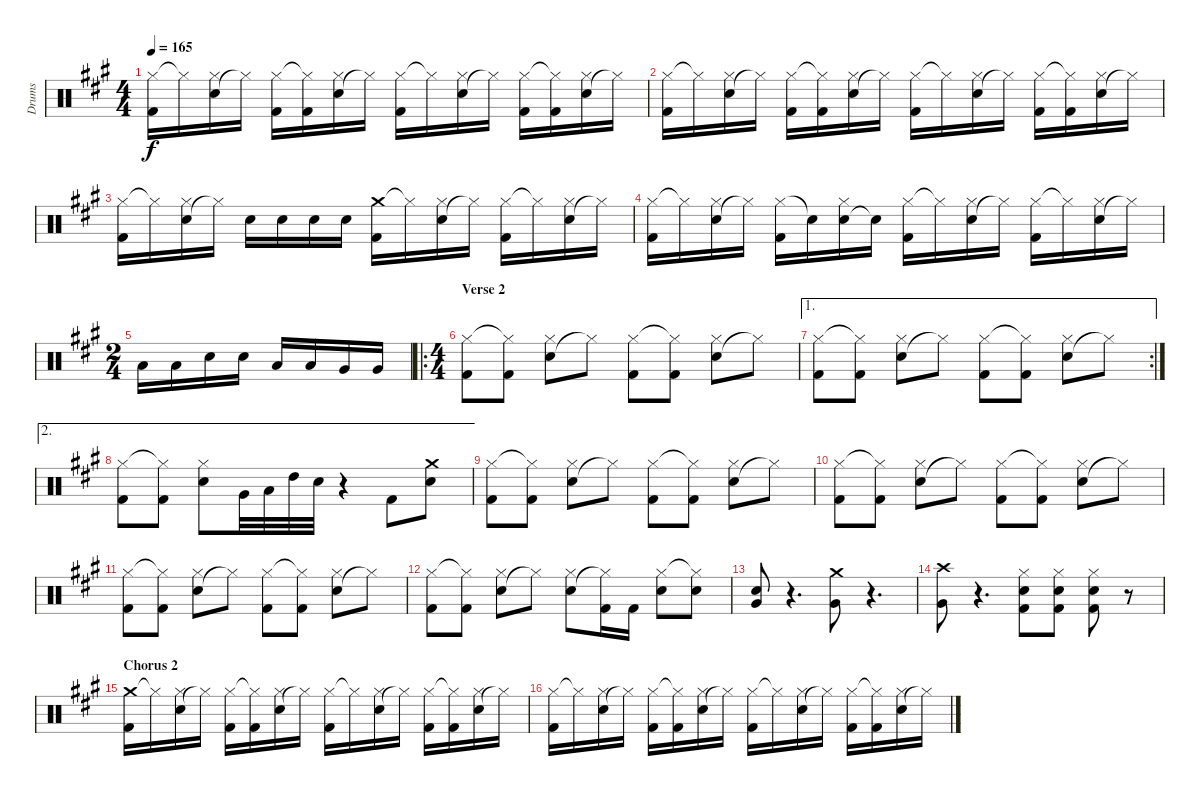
\track ("Drums" "Drums") {instrument percussion}
\staff {score}
\articulation defaults
\ts (4 4)
\tempo 165
\clef neutral
\ks a
("Hi-Hat (closed)" "Kick (hit) 2").16{dy f} "Hi-Hat (closed)"{t}.16 ("Electric Snare (hit)" "Hi-Hat (closed)").16 "Hi-Hat (closed)"{t}.16 ("Hi-Hat (closed)" "Kick (hit) 2").16 ("Hi-Hat (closed)"{t} "Kick (hit) 2").16 ("Electric Snare (hit)" "Hi-Hat (closed)").16 "Hi-Hat (closed)"{t}.16 ("Hi-Hat (closed)" "Kick (hit) 2").16 "Hi-Hat (closed)"{t}.16 ("Electric Snare (hit)" "Hi-Hat (closed)").16 "Hi-Hat (closed)"{t}.16 ("Hi-Hat (closed)" "Kick (hit) 2").16 ("Hi-Hat (closed)"{t} "Kick (hit) 2").16 ("Electric Snare (hit)" "Hi-Hat (closed)").16 "Hi-Hat (closed)"{t}.16 |
("Hi-Hat (closed)" "Kick (hit) 2").16 "Hi-Hat (closed)"{t}.16 ("Electric Snare (hit)" "Hi-Hat (closed)").16 "Hi-Hat (closed)"{t}.16 ("Hi-Hat (closed)" "Kick (hit) 2").16 ("Hi-Hat (closed)"{t} "Kick (hit) 2").16 ("Electric Snare (hit)" "Hi-Hat (closed)").16 "Hi-Hat (closed)"{t}.16 ("Hi-Hat (closed)" "Kick (hit) 2").16 "Hi-Hat (closed)"{t}.16 ("Electric Snare (hit)" "Hi-Hat (closed)").16 "Hi-Hat (closed)"{t}.16 ("Hi-Hat (closed)" "Kick (hit) 2").16 ("Hi-Hat (closed)"{t} "Kick (hit) 2").16 ("Electric Snare (hit)" "Hi-Hat (closed)").16 "Hi-Hat (closed)"{t}.16 |
("Hi-Hat (closed)" "Kick (hit) 2").16 "Hi-Hat (closed)"{t}.16 ("Electric Snare (hit)" "Hi-Hat (closed)").16 "Hi-Hat (closed)"{t}.16 "Electric Snare (hit)".16 "Electric Snare (hit)".16 "Electric Snare (hit)".16 "Electric Snare (hit)".16 ("Crash medium (hit)" "Kick (hit) 2").16 "Hi-Hat (closed)"{t}.16 ("Electric Snare (hit)" "Hi-Hat (closed)").16 "Hi-Hat (closed)"{t}.16 ("Hi-Hat (closed)" "Kick (hit) 2").16 "Hi-Hat (closed)"{t}.16 ("Electric Snare (hit)" "Hi-Hat (closed)").16 "Hi-Hat (closed)"{t}.16 |
("Hi-Hat (closed)" "Kick (hit) 2").16 "Hi-Hat (closed)"{t}.16 ("Electric Snare (hit)" "Hi-Hat (closed)").16 "Hi-Hat (closed)"{t}.16 ("Hi-Hat (closed)" "Kick (hit) 2").16 "Snare (hit)"{t}.16 ("Electric Snare (hit)" "Hi-Hat (closed)").16 "Snare (hit)"{t}.16 ("Hi-Hat (closed)" "Kick (hit) 2").16 "Hi-Hat (closed)"{t}.16 ("Electric Snare (hit)" "Hi-Hat (closed)").16 "Hi-Hat (closed)"{t}.16 ("Hi-Hat (closed)" "Kick (hit) 2").16 "Hi-Hat (closed)"{t}.16 ("Electric Snare (hit)" "Hi-Hat (closed)").16 "Hi-Hat (closed)"{t}.16 |
\ts (2 4)
"Low Tom (hit)".16 "Low Tom (hit)".16 "Electric Snare (hit)".16 "Electric Snare (hit)".16 "Low Tom (hit)".16 "Low Tom (hit)".16 "Very Low Tom (hit)".16 "Very Low Tom (hit)".16 |
\ro
\ts (4 4)
\section ("" "Verse 2")
("Hi-Hat (closed)" "Kick (hit) 2").8 ("Hi-Hat (closed)"{t} "Kick (hit) 2").8 ("Electric Snare (hit)" "Hi-Hat (closed)").8 "Hi-Hat (closed)"{t}.8 ("Hi-Hat (closed)" "Kick (hit) 2").8 ("Hi-Hat (closed)"{t} "Kick (hit) 2").8 ("Electric Snare (hit)" "Hi-Hat (closed)").8 "Hi-Hat (closed)"{t}.8 |
\ae 1
\rc 2
("Hi-Hat (closed)" "Kick (hit) 2").8 ("Hi-Hat (closed)"{t} "Kick (hit) 2").8 ("Electric Snare (hit)" "Hi-Hat (closed)").8 "Hi-Hat (closed)"{t}.8 ("Hi-Hat (closed)" "Kick (hit) 2").8 ("Hi-Hat (closed)"{t} "Kick (hit) 2").8 ("Electric Snare (hit)" "Hi-Hat (closed)").8 "Hi-Hat (closed)"{t}.8 |
\ae 2
("Hi-Hat (closed)" "Kick (hit) 2").8 ("Hi-Hat (closed)"{t} "Kick (hit) 2").8 ("Electric Snare (hit)" "Hi-Hat (closed)").8 "Very Low Tom (hit)".32 "Low Tom (hit)".32 "High Tom (hit)".32 "Electric Snare (hit)".32 r.4 "Kick (hit) 2".8 ("Electric Snare (hit)" "Crash medium (hit)").8 |
("Hi-Hat (closed)" "Kick (hit) 2").8 ("Hi-Hat (closed)"{t} "Kick (hit) 2").8 ("Electric Snare (hit)" "Hi-Hat (closed)").8 "Hi-Hat (closed)"{t}.8 ("Hi-Hat (closed)" "Kick (hit) 2").8 ("Hi-Hat (closed)"{t} "Kick (hit) 2").8 ("Electric Snare (hit)" "Hi-Hat (closed)").8 "Hi-Hat (closed)"{t}.8 |
("Hi-Hat (closed)" "Kick (hit) 2").8 ("Hi-Hat (closed)"{t} "Kick (hit) 2").8 ("Electric Snare (hit)" "Hi-Hat (closed)").8 "Hi-Hat (closed)"{t}.8 ("Hi-Hat (closed)" "Kick (hit) 2").8 ("Hi-Hat (closed)"{t} "Kick (hit) 2").8 ("Electric Snare (hit)" "Hi-Hat (closed)").8 "Hi-Hat (closed)"{t}.8 |
("Hi-Hat (closed)" "Kick (hit) 2").8 ("Hi-Hat (closed)"{t} "Kick (hit) 2").8 ("Electric Snare (hit)" "Hi-Hat (closed)").8 "Hi-Hat (closed)"{t}.8 ("Hi-Hat (closed)" "Kick (hit) 2").8 ("Hi-Hat (closed)"{t} "Kick (hit) 2").8 ("Electric Snare (hit)" "Hi-Hat (closed)").8 "Hi-Hat (closed)"{t}.8 |
("Hi-Hat (closed)" "Kick (hit) 2").8 ("Hi-Hat (closed)"{t} "Kick (hit) 2").8 ("Electric Snare (hit)" "Hi-Hat (closed)").8 "Hi-Hat (closed)"{t}.8 ("Electric Snare (hit)" "Hi-Hat (closed)").8 ("Hi-Hat (closed)"{t} "Kick (hit) 2").16 "Kick (hit) 2".16 ("Electric Snare (hit)" "Hi-Hat (closed)").8 ("Electric Snare (hit)" "Hi-Hat (closed)"{t}).8 |
("Very Low Tom (hit)" "Electric Snare (hit)").8 r.4{d} ("Crash medium (hit)" "Very Low Tom (hit)").8 r.4{d} |
("Crash high (hit)" "Very Low Tom (hit)").8 r.4{d} ("Electric Snare (hit)" "Hi-Hat (closed)" "Kick (hit) 2").8 ("Electric Snare (hit)" "Hi-Hat (closed)" "Kick (hit) 2").8 ("Electric Snare (hit)" "Hi-Hat (closed)" "Kick (hit) 2").8 r.8 |
\section ("" "Chorus 2")
("Crash medium (hit)" "Kick (hit) 2").16 "Hi-Hat (closed)"{t}.16 ("Electric Snare (hit)" "Hi-Hat (closed)").16 "Hi-Hat (closed)"{t}.16 ("Hi-Hat (closed)" "Kick (hit) 2").16 ("Hi-Hat (closed)"{t} "Kick (hit) 2").16 ("Electric Snare (hit)" "Hi-Hat (closed)").16 "Hi-Hat (closed)"{t}.16 ("Hi-Hat (closed)" "Kick (hit) 2").16 "Hi-Hat (closed)"{t}.16 ("Electric Snare (hit)" "Hi-Hat (closed)").16 "Hi-Hat (closed)"{t}.16 ("Hi-Hat (closed)" "Kick (hit) 2").16 ("Hi-Hat (closed)"{t} "Kick (hit) 2").16 ("Electric Snare (hit)" "Hi-Hat (closed)").16 "Hi-Hat (closed)"{t}.16 |
("Hi-Hat (closed)" "Kick (hit) 2").16 "Hi-Hat (closed)"{t}.16 ("Electric Snare (hit)" "Hi-Hat (closed)").16 "Hi-Hat (closed)"{t}.16 ("Hi-Hat (closed)" "Kick (hit) 2").16 ("Hi-Hat (closed)"{t} "Kick (hit) 2").16 ("Electric Snare (hit)" "Hi-Hat (closed)").16 "Hi-Hat (closed)"{t}.16 ("Hi-Hat (closed)" "Kick (hit) 2").16 "Hi-Hat (closed)"{t}.16 ("Electric Snare (hit)" "Hi-Hat (closed)").16 "Hi-Hat (closed)"{t}.16 ("Hi-Hat (closed)" "Kick (hit) 2").16 ("Hi-Hat (closed)"{t} "Kick (hit) 2").16 ("Electric Snare (hit)" "Hi-Hat (closed)").16 "Hi-Hat (closed)"{t}.16
